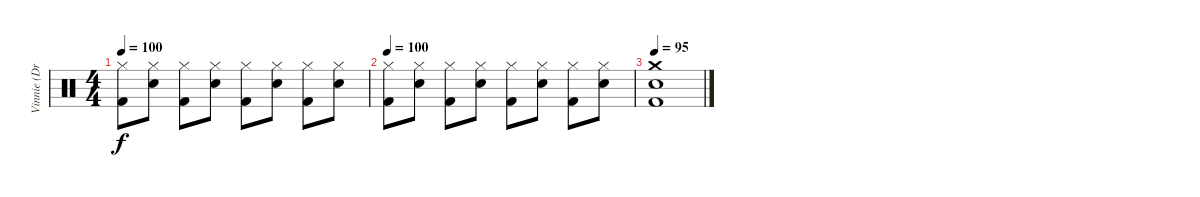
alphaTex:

\track ("Vinnie (Drums)" "Vinnie (Dr") {instrument percussion}
\staff {score}
\articulation defaults
\ts (4 4)
\tempo 100
\clef neutral
\ks c
("Kick (hit) 2" "Hi-Hat (closed)").8{dy f} ("Snare (hit) 2" "Hi-Hat (closed)").8 ("Kick (hit) 2" "Hi-Hat (closed)").8 ("Snare (hit) 2" "Hi-Hat (closed)").8 ("Kick (hit) 2" "Hi-Hat (closed)").8 ("Snare (hit) 2" "Hi-Hat (closed)").8 ("Kick (hit) 2" "Hi-Hat (closed)").8 ("Snare (hit) 2" "Hi-Hat (closed)").8 |
\tempo 100
("Kick (hit) 2" "Hi-Hat (closed)").8 ("Snare (hit) 2" "Hi-Hat (closed)").8 ("Kick (hit) 2" "Hi-Hat (closed)").8 ("Snare (hit) 2" "Hi-Hat (closed)").8 ("Kick (hit) 2" "Hi-Hat (closed)").8 ("Snare (hit) 2" "Hi-Hat (closed)").8 ("Kick (hit) 2" "Hi-Hat (closed)").8 ("Snare (hit) 2" "Hi-Hat (closed)").8 |
\tempo 95
("Crash medium (hit)" "Snare (hit) 2" "Kick (hit) 2").1
